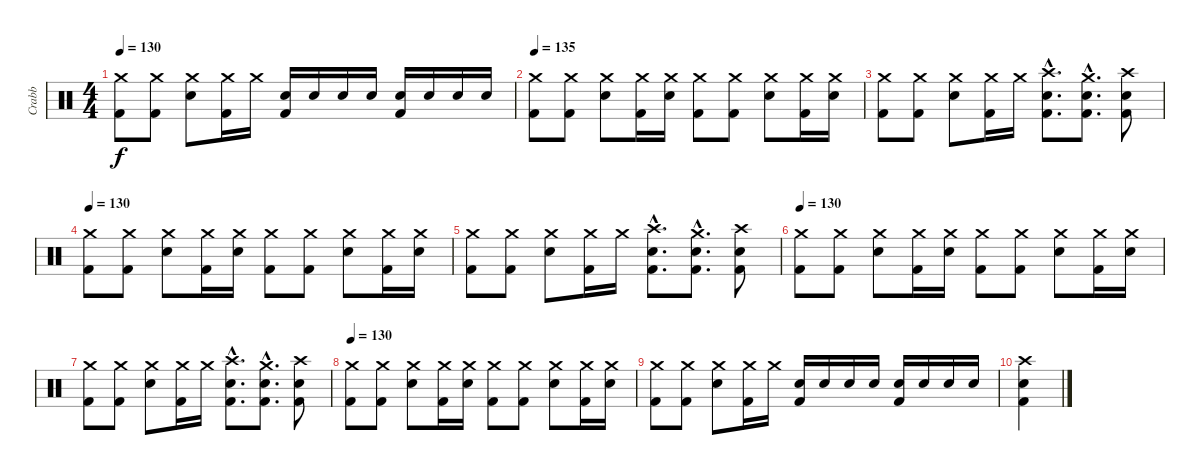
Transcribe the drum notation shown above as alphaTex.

\track ("Crabb" "Crabb") {instrument percussion}
\staff {score}
\articulation defaults
\ts (4 4)
\tempo 130
\clef neutral
\ks c
("Crash medium (hit)" "Kick (hit) 2").8{dy f} ("Crash medium (hit)" "Kick (hit) 2").8 ("Crash medium (hit)" "Electric Snare (hit)").8 ("Crash medium (hit)" "Kick (hit) 2").16 "Crash medium (hit)".16 ("Kick (hit) 2" "Electric Snare (hit)").16 "Electric Snare (hit)".16 "Electric Snare (hit)".16 "Electric Snare (hit)".16 ("Kick (hit) 2" "Electric Snare (hit)").16 "Electric Snare (hit)".16 "Electric Snare (hit)".16 "Electric Snare (hit)".16 |
\tempo 130
\tempo 135
("Crash medium (hit)" "Kick (hit) 2").8 ("Crash medium (hit)" "Kick (hit) 2").8 ("Crash medium (hit)" "Electric Snare (hit)").8 ("Crash medium (hit)" "Kick (hit) 2").16 ("Crash medium (hit)" "Electric Snare (hit)").16 ("Crash medium (hit)" "Kick (hit) 2").8 ("Crash medium (hit)" "Kick (hit) 2").8 ("Crash medium (hit)" "Electric Snare (hit)").8 ("Crash medium (hit)" "Kick (hit) 2").16 ("Crash medium (hit)" "Electric Snare (hit)").16 |
("Crash medium (hit)" "Kick (hit) 2").8 ("Crash medium (hit)" "Kick (hit) 2").8 ("Crash medium (hit)" "Electric Snare (hit)").8 ("Crash medium (hit)" "Kick (hit) 2").16 "Crash medium (hit)".16 ("Crash high (hit)"{hac} "Kick (hit) 2"{hac} "Electric Snare (hit)"{hac}).8{d} ("Crash medium (hit)"{hac} "Kick (hit) 2"{hac} "Electric Snare (hit)"{hac}).8{d} ("Crash high (hit)" "Kick (hit) 2" "Electric Snare (hit)").8 |
\tempo 130
("Crash medium (hit)" "Kick (hit) 2").8 ("Crash medium (hit)" "Kick (hit) 2").8 ("Crash medium (hit)" "Electric Snare (hit)").8 ("Crash medium (hit)" "Kick (hit) 2").16 ("Crash medium (hit)" "Electric Snare (hit)").16 ("Crash medium (hit)" "Kick (hit) 2").8 ("Crash medium (hit)" "Kick (hit) 2").8 ("Crash medium (hit)" "Electric Snare (hit)").8 ("Crash medium (hit)" "Kick (hit) 2").16 ("Crash medium (hit)" "Electric Snare (hit)").16 |
("Crash medium (hit)" "Kick (hit) 2").8 ("Crash medium (hit)" "Kick (hit) 2").8 ("Crash medium (hit)" "Electric Snare (hit)").8 ("Crash medium (hit)" "Kick (hit) 2").16 "Crash medium (hit)".16 ("Crash high (hit)"{hac} "Kick (hit) 2"{hac} "Electric Snare (hit)"{hac}).8{d} ("Crash medium (hit)"{hac} "Kick (hit) 2"{hac} "Electric Snare (hit)"{hac}).8{d} ("Crash high (hit)" "Kick (hit) 2" "Electric Snare (hit)").8 |
\tempo 130
("Crash medium (hit)" "Kick (hit) 2").8 ("Crash medium (hit)" "Kick (hit) 2").8 ("Crash medium (hit)" "Electric Snare (hit)").8 ("Crash medium (hit)" "Kick (hit) 2").16 ("Crash medium (hit)" "Electric Snare (hit)").16 ("Crash medium (hit)" "Kick (hit) 2").8 ("Crash medium (hit)" "Kick (hit) 2").8 ("Crash medium (hit)" "Electric Snare (hit)").8 ("Crash medium (hit)" "Kick (hit) 2").16 ("Crash medium (hit)" "Electric Snare (hit)").16 |
("Crash medium (hit)" "Kick (hit) 2").8 ("Crash medium (hit)" "Kick (hit) 2").8 ("Crash medium (hit)" "Electric Snare (hit)").8 ("Crash medium (hit)" "Kick (hit) 2").16 "Crash medium (hit)".16 ("Crash high (hit)"{hac} "Kick (hit) 2"{hac} "Electric Snare (hit)"{hac}).8{d} ("Crash medium (hit)"{hac} "Kick (hit) 2"{hac} "Electric Snare (hit)"{hac}).8{d} ("Crash high (hit)" "Kick (hit) 2" "Electric Snare (hit)").8 |
\tempo 130
("Crash medium (hit)" "Kick (hit) 2").8 ("Crash medium (hit)" "Kick (hit) 2").8 ("Crash medium (hit)" "Electric Snare (hit)").8 ("Crash medium (hit)" "Kick (hit) 2").16 ("Crash medium (hit)" "Electric Snare (hit)").16 ("Crash medium (hit)" "Kick (hit) 2").8 ("Crash medium (hit)" "Kick (hit) 2").8 ("Crash medium (hit)" "Electric Snare (hit)").8 ("Crash medium (hit)" "Kick (hit) 2").16 ("Crash medium (hit)" "Electric Snare (hit)").16 |
("Crash medium (hit)" "Kick (hit) 2").8 ("Crash medium (hit)" "Kick (hit) 2").8 ("Crash medium (hit)" "Electric Snare (hit)").8 ("Crash medium (hit)" "Kick (hit) 2").16 "Crash medium (hit)".16 ("Kick (hit) 2" "Electric Snare (hit)").16 "Electric Snare (hit)".16 "Electric Snare (hit)".16 "Electric Snare (hit)".16 ("Kick (hit) 2" "Electric Snare (hit)").16 "Electric Snare (hit)".16 "Electric Snare (hit)".16 "Electric Snare (hit)".16 |
("Crash high (hit)" "Kick (hit) 2" "Electric Snare (hit)").4
